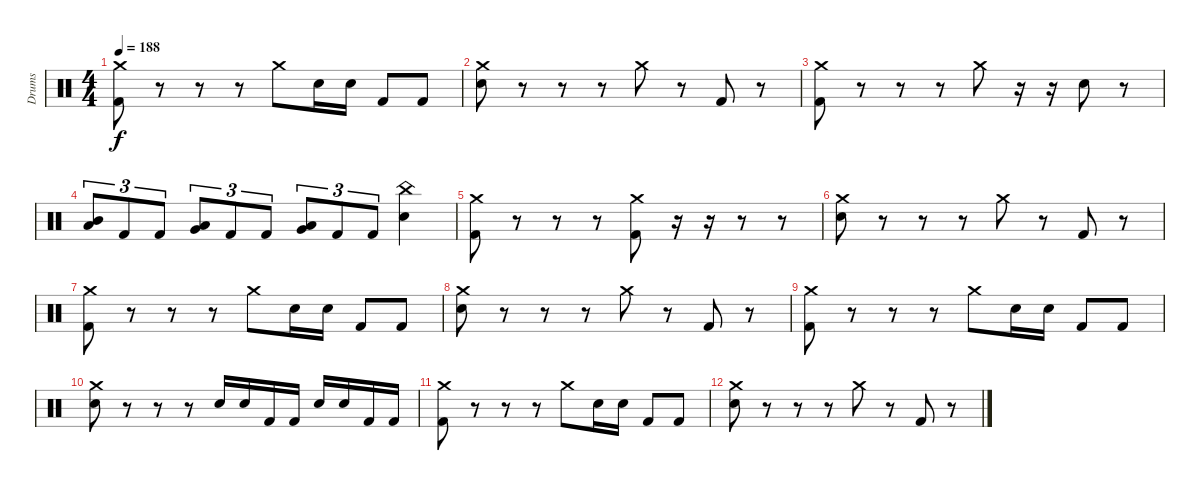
\track ("Drums" "Drums") {instrument percussion}
\staff {score}
\articulation defaults
\ts (4 4)
\tempo 188
\clef neutral
\ks c
("Crash medium (hit)" "Kick (hit) 2").8{dy f} r.8 r.8 r.8 "Crash medium (hit)".8 "Snare (hit) 2".16 "Snare (hit) 2".16 "Kick (hit) 2".8 "Kick (hit) 2".8 |
("Crash medium (hit)" "Snare (hit) 2").8 r.8 r.8 r.8 "Crash medium (hit)".8 r.8 "Kick (hit) 2".8 r.8 |
("Crash medium (hit)" "Kick (hit) 2").8 r.8 r.8 r.8 "Crash medium (hit)".8 r.16 r.16 "Snare (hit) 2".8 r.8 |
("Mid Tom (hit)" "Low Tom (hit)").8{tu (3 2)} "Kick (hit) 2".8{tu (3 2)} "Kick (hit) 2".8{tu (3 2)} ("Low Tom (hit)" "Very Low Tom (hit)").8{tu (3 2)} "Kick (hit) 2".8{tu (3 2)} "Kick (hit) 2".8{tu (3 2)} ("Very Low Tom (hit)" "Low Floor Tom (hit)").8{tu (3 2)} "Kick (hit) 2".8{tu (3 2)} "Kick (hit) 2".8{tu (3 2)} ("China (hit)" "Snare (hit) 2").4 |
("Crash medium (hit)" "Kick (hit) 2").8 r.8 r.8 r.8 ("Crash medium (hit)" "Kick (hit) 2").8 r.16 r.16 r.8 r.8 |
("Crash medium (hit)" "Snare (hit) 2").8 r.8 r.8 r.8 "Crash medium (hit)".8 r.8 "Kick (hit) 2".8 r.8 |
("Crash medium (hit)" "Kick (hit) 2").8 r.8 r.8 r.8 "Crash medium (hit)".8 "Snare (hit) 2".16 "Snare (hit) 2".16 "Kick (hit) 2".8 "Kick (hit) 2".8 |
("Crash medium (hit)" "Snare (hit) 2").8 r.8 r.8 r.8 "Crash medium (hit)".8 r.8 "Kick (hit) 2".8 r.8 |
("Crash medium (hit)" "Kick (hit) 2").8 r.8 r.8 r.8 "Crash medium (hit)".8 "Snare (hit) 2".16 "Snare (hit) 2".16 "Kick (hit) 2".8 "Kick (hit) 2".8 |
("Crash medium (hit)" "Snare (hit) 2").8 r.8 r.8 r.8 "Snare (hit) 2".16 "Snare (hit) 2".16 "Kick (hit) 2".16 "Kick (hit) 2".16 "Snare (hit) 2".16 "Snare (hit) 2".16 "Kick (hit) 2".16 "Kick (hit) 2".16 |
("Crash medium (hit)" "Kick (hit) 2").8 r.8 r.8 r.8 "Crash medium (hit)".8 "Snare (hit) 2".16 "Snare (hit) 2".16 "Kick (hit) 2".8 "Kick (hit) 2".8 |
("Crash medium (hit)" "Snare (hit) 2").8 r.8 r.8 r.8 "Crash medium (hit)".8 r.8 "Kick (hit) 2".8 r.8
